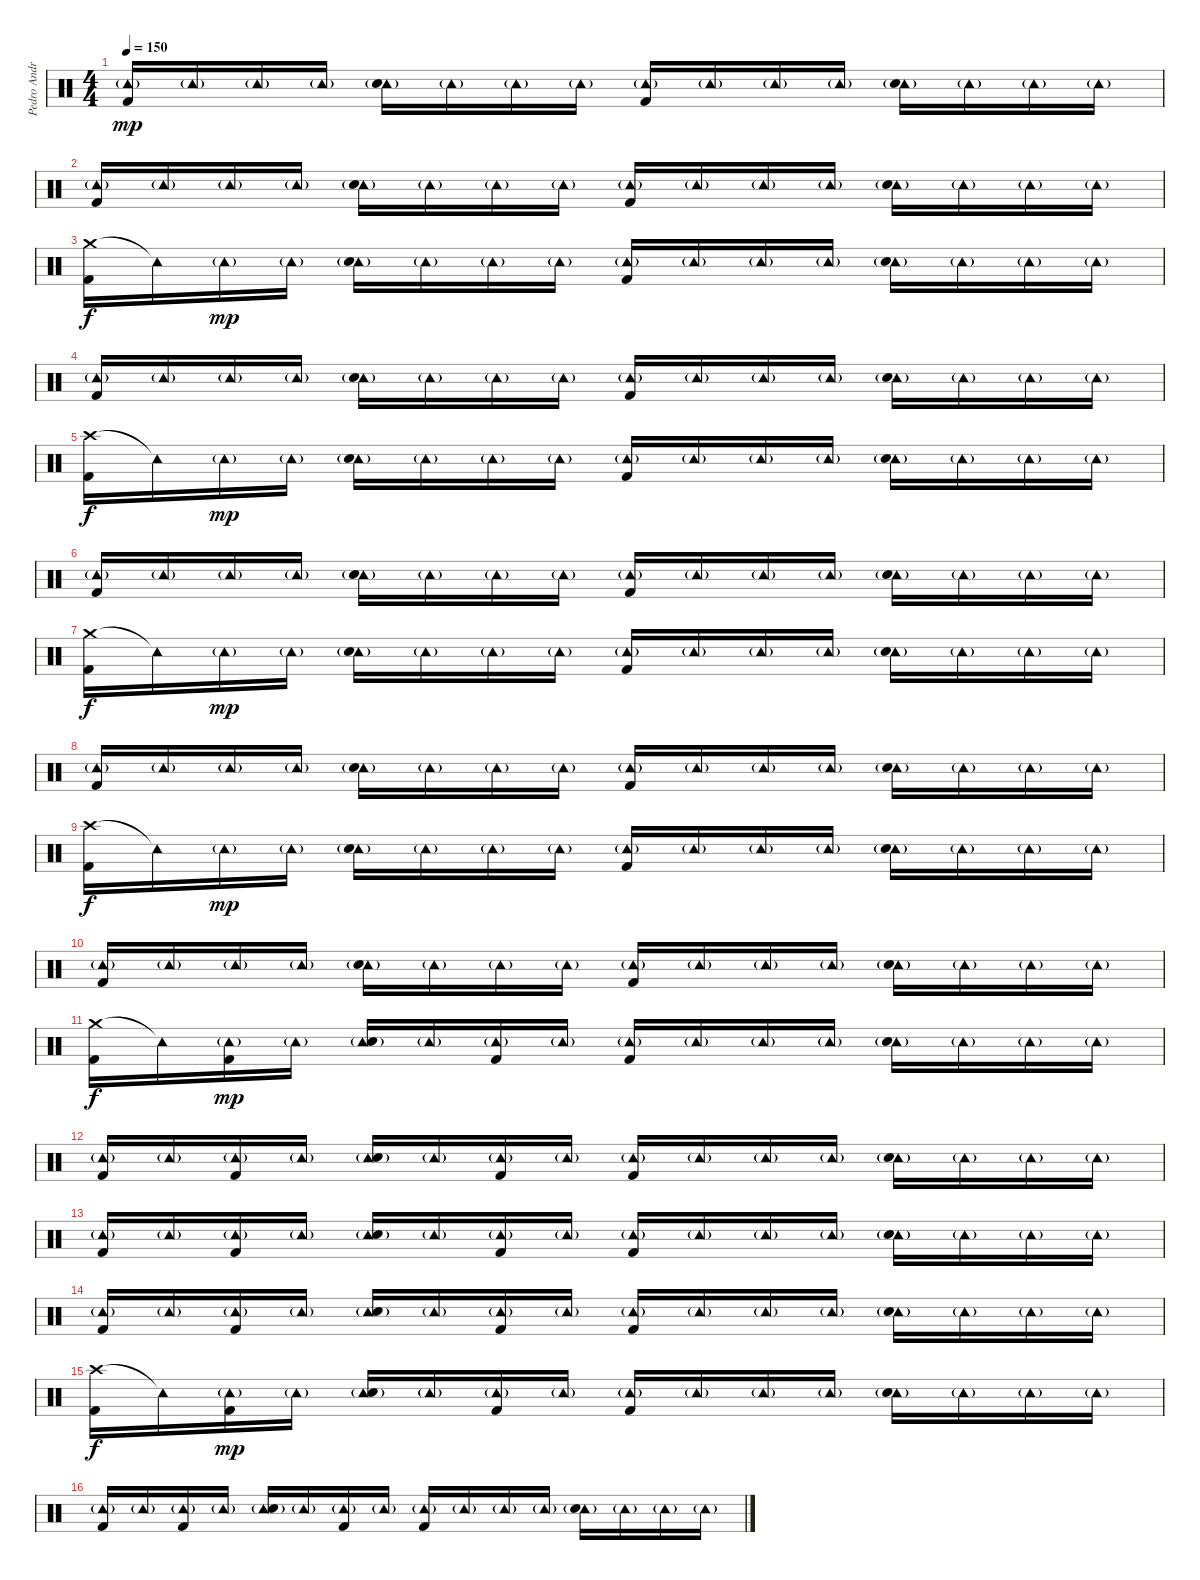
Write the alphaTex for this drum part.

\track ("Pedro Andreu" "Pedro Andr") {instrument percussion}
\staff {score}
\articulation defaults
\ts (4 4)
\tempo 150
\clef neutral
\ks c
("Tambourine (hit)"{g} "Kick (hit) 2").16{dy mp} "Tambourine (hit)"{g}.16 "Tambourine (hit)"{g}.16 "Tambourine (hit)"{g}.16 ("Tambourine (hit)"{g} "Snare (hit) 2").16 "Tambourine (hit)"{g}.16 "Tambourine (hit)"{g}.16 "Tambourine (hit)"{g}.16 ("Tambourine (hit)"{g} "Kick (hit) 2").16 "Tambourine (hit)"{g}.16 "Tambourine (hit)"{g}.16 "Tambourine (hit)"{g}.16 ("Tambourine (hit)"{g} "Snare (hit) 2").16 "Tambourine (hit)"{g}.16 "Tambourine (hit)"{g}.16 "Tambourine (hit)"{g}.16 |
("Tambourine (hit)"{g} "Kick (hit) 2").16 "Tambourine (hit)"{g}.16 "Tambourine (hit)"{g}.16 "Tambourine (hit)"{g}.16 ("Tambourine (hit)"{g} "Snare (hit) 2").16 "Tambourine (hit)"{g}.16 "Tambourine (hit)"{g}.16 "Tambourine (hit)"{g}.16 ("Tambourine (hit)"{g} "Kick (hit) 2").16 "Tambourine (hit)"{g}.16 "Tambourine (hit)"{g}.16 "Tambourine (hit)"{g}.16 ("Tambourine (hit)"{g} "Snare (hit) 2").16 "Tambourine (hit)"{g}.16 "Tambourine (hit)"{g}.16 "Tambourine (hit)"{g}.16 |
("Crash medium (hit)" "Kick (hit) 2").16{dy f} "Tambourine (hit)"{t}.16 "Tambourine (hit)"{g}.16{dy mp} "Tambourine (hit)"{g}.16 ("Tambourine (hit)"{g} "Snare (hit) 2").16 "Tambourine (hit)"{g}.16 "Tambourine (hit)"{g}.16 "Tambourine (hit)"{g}.16 ("Tambourine (hit)"{g} "Kick (hit) 2").16 "Tambourine (hit)"{g}.16 "Tambourine (hit)"{g}.16 "Tambourine (hit)"{g}.16 ("Tambourine (hit)"{g} "Snare (hit) 2").16 "Tambourine (hit)"{g}.16 "Tambourine (hit)"{g}.16 "Tambourine (hit)"{g}.16 |
("Tambourine (hit)"{g} "Kick (hit) 2").16 "Tambourine (hit)"{g}.16 "Tambourine (hit)"{g}.16 "Tambourine (hit)"{g}.16 ("Tambourine (hit)"{g} "Snare (hit) 2").16 "Tambourine (hit)"{g}.16 "Tambourine (hit)"{g}.16 "Tambourine (hit)"{g}.16 ("Tambourine (hit)"{g} "Kick (hit) 2").16 "Tambourine (hit)"{g}.16 "Tambourine (hit)"{g}.16 "Tambourine (hit)"{g}.16 ("Tambourine (hit)"{g} "Snare (hit) 2").16 "Tambourine (hit)"{g}.16 "Tambourine (hit)"{g}.16 "Tambourine (hit)"{g}.16 |
("Crash high (hit)" "Kick (hit) 2").16{dy f} "Tambourine (hit)"{t}.16 "Tambourine (hit)"{g}.16{dy mp} "Tambourine (hit)"{g}.16 ("Tambourine (hit)"{g} "Snare (hit) 2").16 "Tambourine (hit)"{g}.16 "Tambourine (hit)"{g}.16 "Tambourine (hit)"{g}.16 ("Tambourine (hit)"{g} "Kick (hit) 2").16 "Tambourine (hit)"{g}.16 "Tambourine (hit)"{g}.16 "Tambourine (hit)"{g}.16 ("Tambourine (hit)"{g} "Snare (hit) 2").16 "Tambourine (hit)"{g}.16 "Tambourine (hit)"{g}.16 "Tambourine (hit)"{g}.16 |
("Tambourine (hit)"{g} "Kick (hit) 2").16 "Tambourine (hit)"{g}.16 "Tambourine (hit)"{g}.16 "Tambourine (hit)"{g}.16 ("Tambourine (hit)"{g} "Snare (hit) 2").16 "Tambourine (hit)"{g}.16 "Tambourine (hit)"{g}.16 "Tambourine (hit)"{g}.16 ("Tambourine (hit)"{g} "Kick (hit) 2").16 "Tambourine (hit)"{g}.16 "Tambourine (hit)"{g}.16 "Tambourine (hit)"{g}.16 ("Tambourine (hit)"{g} "Snare (hit) 2").16 "Tambourine (hit)"{g}.16 "Tambourine (hit)"{g}.16 "Tambourine (hit)"{g}.16 |
("Crash medium (hit)" "Kick (hit) 2").16{dy f} "Tambourine (hit)"{t}.16 "Tambourine (hit)"{g}.16{dy mp} "Tambourine (hit)"{g}.16 ("Tambourine (hit)"{g} "Snare (hit) 2").16 "Tambourine (hit)"{g}.16 "Tambourine (hit)"{g}.16 "Tambourine (hit)"{g}.16 ("Tambourine (hit)"{g} "Kick (hit) 2").16 "Tambourine (hit)"{g}.16 "Tambourine (hit)"{g}.16 "Tambourine (hit)"{g}.16 ("Tambourine (hit)"{g} "Snare (hit) 2").16 "Tambourine (hit)"{g}.16 "Tambourine (hit)"{g}.16 "Tambourine (hit)"{g}.16 |
("Tambourine (hit)"{g} "Kick (hit) 2").16 "Tambourine (hit)"{g}.16 "Tambourine (hit)"{g}.16 "Tambourine (hit)"{g}.16 ("Tambourine (hit)"{g} "Snare (hit) 2").16 "Tambourine (hit)"{g}.16 "Tambourine (hit)"{g}.16 "Tambourine (hit)"{g}.16 ("Tambourine (hit)"{g} "Kick (hit) 2").16 "Tambourine (hit)"{g}.16 "Tambourine (hit)"{g}.16 "Tambourine (hit)"{g}.16 ("Tambourine (hit)"{g} "Snare (hit) 2").16 "Tambourine (hit)"{g}.16 "Tambourine (hit)"{g}.16 "Tambourine (hit)"{g}.16 |
("Crash high (hit)" "Kick (hit) 2").16{dy f} "Tambourine (hit)"{t}.16 "Tambourine (hit)"{g}.16{dy mp} "Tambourine (hit)"{g}.16 ("Tambourine (hit)"{g} "Snare (hit) 2").16 "Tambourine (hit)"{g}.16 "Tambourine (hit)"{g}.16 "Tambourine (hit)"{g}.16 ("Tambourine (hit)"{g} "Kick (hit) 2").16 "Tambourine (hit)"{g}.16 "Tambourine (hit)"{g}.16 "Tambourine (hit)"{g}.16 ("Tambourine (hit)"{g} "Snare (hit) 2").16 "Tambourine (hit)"{g}.16 "Tambourine (hit)"{g}.16 "Tambourine (hit)"{g}.16 |
("Tambourine (hit)"{g} "Kick (hit) 2").16 "Tambourine (hit)"{g}.16 "Tambourine (hit)"{g}.16 "Tambourine (hit)"{g}.16 ("Tambourine (hit)"{g} "Snare (hit) 2").16 "Tambourine (hit)"{g}.16 "Tambourine (hit)"{g}.16 "Tambourine (hit)"{g}.16 ("Tambourine (hit)"{g} "Kick (hit) 2").16 "Tambourine (hit)"{g}.16 "Tambourine (hit)"{g}.16 "Tambourine (hit)"{g}.16 ("Tambourine (hit)"{g} "Snare (hit) 2").16 "Tambourine (hit)"{g}.16 "Tambourine (hit)"{g}.16 "Tambourine (hit)"{g}.16 |
("Crash medium (hit)" "Kick (hit) 2").16{dy f} "Tambourine (hit)"{t}.16 ("Tambourine (hit)"{g} "Kick (hit) 2").16{dy mp} "Tambourine (hit)"{g}.16 ("Tambourine (hit)"{g} "Snare (hit) 2").16 "Tambourine (hit)"{g}.16 ("Tambourine (hit)"{g} "Kick (hit) 2").16 "Tambourine (hit)"{g}.16 ("Tambourine (hit)"{g} "Kick (hit) 2").16 "Tambourine (hit)"{g}.16 "Tambourine (hit)"{g}.16 "Tambourine (hit)"{g}.16 ("Tambourine (hit)"{g} "Snare (hit) 2").16 "Tambourine (hit)"{g}.16 "Tambourine (hit)"{g}.16 "Tambourine (hit)"{g}.16 |
("Tambourine (hit)"{g} "Kick (hit) 2").16 "Tambourine (hit)"{g}.16 ("Tambourine (hit)"{g} "Kick (hit) 2").16 "Tambourine (hit)"{g}.16 ("Tambourine (hit)"{g} "Snare (hit) 2").16 "Tambourine (hit)"{g}.16 ("Tambourine (hit)"{g} "Kick (hit) 2").16 "Tambourine (hit)"{g}.16 ("Tambourine (hit)"{g} "Kick (hit) 2").16 "Tambourine (hit)"{g}.16 "Tambourine (hit)"{g}.16 "Tambourine (hit)"{g}.16 ("Tambourine (hit)"{g} "Snare (hit) 2").16 "Tambourine (hit)"{g}.16 "Tambourine (hit)"{g}.16 "Tambourine (hit)"{g}.16 |
("Tambourine (hit)"{g} "Kick (hit) 2").16 "Tambourine (hit)"{g}.16 ("Tambourine (hit)"{g} "Kick (hit) 2").16 "Tambourine (hit)"{g}.16 ("Tambourine (hit)"{g} "Snare (hit) 2").16 "Tambourine (hit)"{g}.16 ("Tambourine (hit)"{g} "Kick (hit) 2").16 "Tambourine (hit)"{g}.16 ("Tambourine (hit)"{g} "Kick (hit) 2").16 "Tambourine (hit)"{g}.16 "Tambourine (hit)"{g}.16 "Tambourine (hit)"{g}.16 ("Tambourine (hit)"{g} "Snare (hit) 2").16 "Tambourine (hit)"{g}.16 "Tambourine (hit)"{g}.16 "Tambourine (hit)"{g}.16 |
("Tambourine (hit)"{g} "Kick (hit) 2").16 "Tambourine (hit)"{g}.16 ("Tambourine (hit)"{g} "Kick (hit) 2").16 "Tambourine (hit)"{g}.16 ("Tambourine (hit)"{g} "Snare (hit) 2").16 "Tambourine (hit)"{g}.16 ("Tambourine (hit)"{g} "Kick (hit) 2").16 "Tambourine (hit)"{g}.16 ("Tambourine (hit)"{g} "Kick (hit) 2").16 "Tambourine (hit)"{g}.16 "Tambourine (hit)"{g}.16 "Tambourine (hit)"{g}.16 ("Tambourine (hit)"{g} "Snare (hit) 2").16 "Tambourine (hit)"{g}.16 "Tambourine (hit)"{g}.16 "Tambourine (hit)"{g}.16 |
("Crash high (hit)" "Kick (hit) 2").16{dy f} "Tambourine (hit)"{t}.16 ("Tambourine (hit)"{g} "Kick (hit) 2").16{dy mp} "Tambourine (hit)"{g}.16 ("Tambourine (hit)"{g} "Snare (hit) 2").16 "Tambourine (hit)"{g}.16 ("Tambourine (hit)"{g} "Kick (hit) 2").16 "Tambourine (hit)"{g}.16 ("Tambourine (hit)"{g} "Kick (hit) 2").16 "Tambourine (hit)"{g}.16 "Tambourine (hit)"{g}.16 "Tambourine (hit)"{g}.16 ("Tambourine (hit)"{g} "Snare (hit) 2").16 "Tambourine (hit)"{g}.16 "Tambourine (hit)"{g}.16 "Tambourine (hit)"{g}.16 |
("Tambourine (hit)"{g} "Kick (hit) 2").16 "Tambourine (hit)"{g}.16 ("Tambourine (hit)"{g} "Kick (hit) 2").16 "Tambourine (hit)"{g}.16 ("Tambourine (hit)"{g} "Snare (hit) 2").16 "Tambourine (hit)"{g}.16 ("Tambourine (hit)"{g} "Kick (hit) 2").16 "Tambourine (hit)"{g}.16 ("Tambourine (hit)"{g} "Kick (hit) 2").16 "Tambourine (hit)"{g}.16 "Tambourine (hit)"{g}.16 "Tambourine (hit)"{g}.16 ("Tambourine (hit)"{g} "Snare (hit) 2").16 "Tambourine (hit)"{g}.16 "Tambourine (hit)"{g}.16 "Tambourine (hit)"{g}.16
